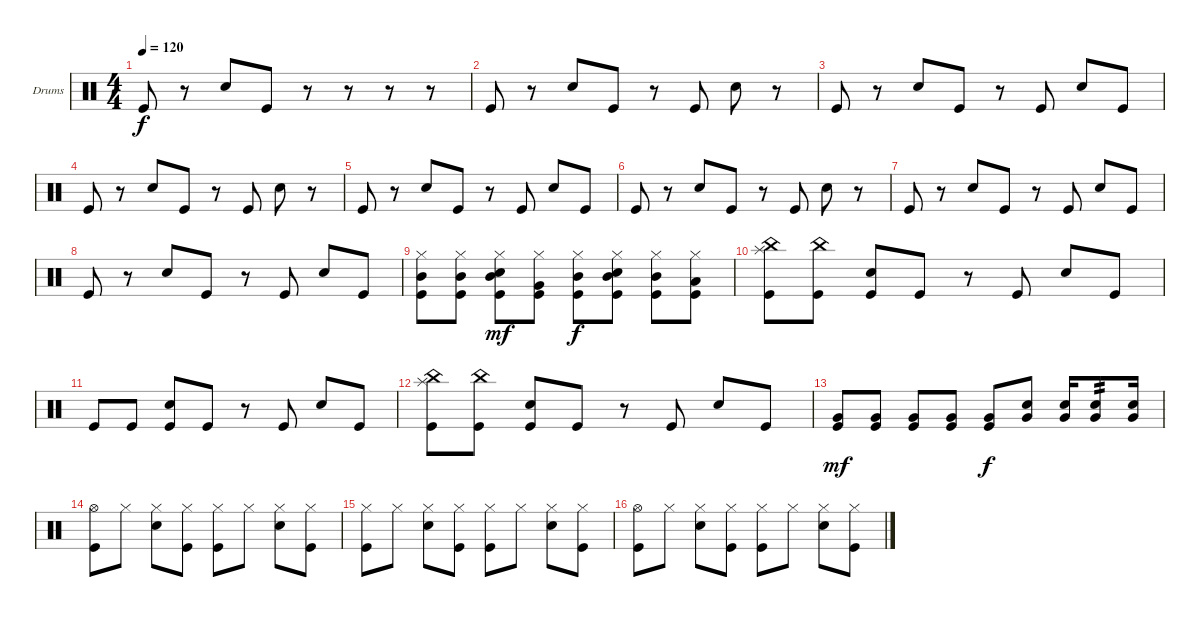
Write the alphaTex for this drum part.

\defaultSystemsLayout 4
\bracketExtendMode groupsimilarinstruments
\firstSystemTrackNameOrientation horizontal
\otherSystemsTrackNameOrientation horizontal
\track ("Drumkit" "Drums") {instrument percussion}
\staff {score}
\articulation defaults
\ts (4 4)
\tempo 120
\clef neutral
\ks c "Kick (hit)".8{dy f}
r.8 "Snare (hit) 2".8 "Kick (hit)".8 r.8 r.8 r.8 r.8 |
"Kick (hit)".8 r.8 "Snare (hit) 2".8 "Kick (hit)".8 r.8 "Kick (hit)".8 "Snare (hit) 2".8 r.8 |
"Kick (hit)".8 r.8 "Snare (hit) 2".8 "Kick (hit)".8 r.8 "Kick (hit)".8 "Snare (hit) 2".8 "Kick (hit)".8 |
"Kick (hit)".8 r.8 "Snare (hit) 2".8 "Kick (hit)".8 r.8 "Kick (hit)".8 "Snare (hit) 2".8 r.8 |
"Kick (hit)".8 r.8 "Snare (hit) 2".8 "Kick (hit)".8 r.8 "Kick (hit)".8 "Snare (hit) 2".8 "Kick (hit)".8 |
"Kick (hit)".8 r.8 "Snare (hit) 2".8 "Kick (hit)".8 r.8 "Kick (hit)".8 "Snare (hit) 2".8 r.8 |
"Kick (hit)".8 r.8 "Snare (hit) 2".8 "Kick (hit)".8 r.8 "Kick (hit)".8 "Snare (hit) 2".8 "Kick (hit)".8 |
"Kick (hit)".8 r.8 "Snare (hit) 2".8 "Kick (hit)".8 r.8 "Kick (hit)".8 "Snare (hit) 2".8 "Kick (hit)".8 |
("Mid Tom (hit)" "Hi-Hat (closed)" "Kick (hit)").8 ("Mid Tom (hit)" "Hi-Hat (closed)" "Kick (hit)").8 ("Mid Tom (hit)" "Hi-Hat (closed)" "Snare (hit) 2" "Kick (hit)").8{dy mf} ("Very Low Tom (hit)" "Hi-Hat (closed)" "Kick (hit)").8 ("Mid Tom (hit)" "Hi-Hat (closed)" "Kick (hit)").8{dy f} ("Mid Tom (hit)" "Hi-Hat (closed)" "Snare (hit) 2" "Kick (hit)").8 ("Mid Tom (hit)" "Hi-Hat (closed)" "Kick (hit)").8 ("Low Tom (hit)" "Hi-Hat (closed)" "Kick (hit)").8 |
("Kick (hit)" "China (hit)" "Splash (hit)").8 ("Kick (hit)" "China (hit)").8 ("Kick (hit)" "Snare (hit) 2").8 "Kick (hit)".8 r.8 "Kick (hit)".8 "Snare (hit) 2".8 "Kick (hit)".8 |
"Kick (hit)".8 "Kick (hit)".8 ("Kick (hit)" "Snare (hit) 2").8 "Kick (hit)".8 r.8 "Kick (hit)".8 "Snare (hit) 2".8 "Kick (hit)".8 |
("Kick (hit)" "China (hit)" "Splash (hit)").8 ("Kick (hit)" "China (hit)").8 ("Kick (hit)" "Snare (hit) 2").8 "Kick (hit)".8 r.8 "Kick (hit)".8 "Snare (hit) 2".8 "Kick (hit)".8 |
("Very Low Tom (hit)" "Kick (hit)").8{dy mf} ("Very Low Tom (hit)" "Kick (hit)").8 ("Very Low Tom (hit)" "Kick (hit)").8 ("Very Low Tom (hit)" "Kick (hit)").8 ("Very Low Tom (hit)" "Kick (hit)").8{dy f} ("Very Low Tom (hit)" "Snare (hit) 2").8 ("Very Low Tom (hit)" "Snare (hit) 2").16 ("Very Low Tom (hit)" "Snare (hit) 2").8{tp 2} ("Snare (hit) 2" "Very Low Tom (hit)").16 |
("Kick (hit)" "Hi-Hat (open)").8 "Hi-Hat (closed)".8 ("Snare (hit) 2" "Hi-Hat (closed)").8 ("Kick (hit)" "Hi-Hat (closed)").8 ("Kick (hit)" "Hi-Hat (closed)").8 "Hi-Hat (closed)".8 ("Snare (hit) 2" "Hi-Hat (closed)").8 ("Kick (hit)" "Hi-Hat (closed)").8 |
("Kick (hit)" "Hi-Hat (closed)").8 "Hi-Hat (closed)".8 ("Snare (hit) 2" "Hi-Hat (closed)").8 ("Kick (hit)" "Hi-Hat (closed)").8 ("Kick (hit)" "Hi-Hat (closed)").8 "Hi-Hat (closed)".8 ("Snare (hit) 2" "Hi-Hat (closed)").8 ("Kick (hit)" "Hi-Hat (closed)").8 |
("Kick (hit)" "Hi-Hat (open)").8 "Hi-Hat (closed)".8 ("Snare (hit) 2" "Hi-Hat (closed)").8 ("Kick (hit)" "Hi-Hat (closed)").8 ("Kick (hit)" "Hi-Hat (closed)").8 "Hi-Hat (closed)".8 ("Snare (hit) 2" "Hi-Hat (closed)").8 ("Kick (hit)" "Hi-Hat (closed)").8
